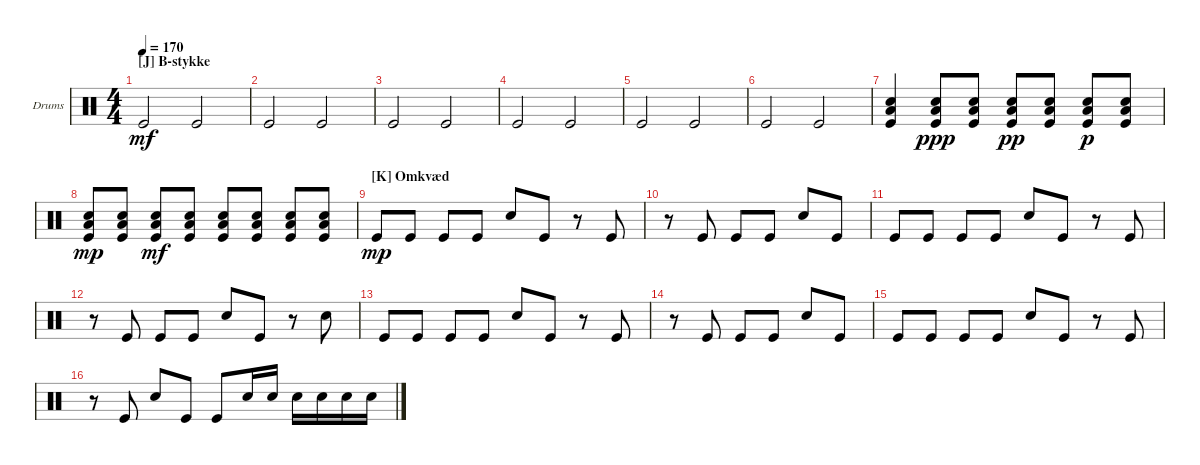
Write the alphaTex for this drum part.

\defaultSystemsLayout 4
\bracketExtendMode groupsimilarinstruments
\firstSystemTrackNameOrientation horizontal
\otherSystemsTrackNameOrientation horizontal
\track ("Ray" "Drums") {instrument percussion}
\staff {score}
\articulation defaults
\ts (4 4)
\section ("J" "B-stykke")
\tempo 170
\clef neutral
\ks c "Kick (hit)".2{dy mf} "Kick (hit)".2
|
"Kick (hit)".2 "Kick (hit)".2 |
"Kick (hit)".2 "Kick (hit)".2 |
"Kick (hit)".2 "Kick (hit)".2 |
"Kick (hit)".2 "Kick (hit)".2 |
"Kick (hit)".2 "Kick (hit)".2 |
("Snare (hit) 2" "Low Tom (hit)" "Kick (hit)").4 ("Snare (hit) 2" "Low Tom (hit)" "Kick (hit)").8{dy ppp} ("Snare (hit) 2" "Low Tom (hit)" "Kick (hit)").8 ("Snare (hit) 2" "Low Tom (hit)" "Kick (hit)").8{dy pp} ("Snare (hit) 2" "Low Tom (hit)" "Kick (hit)").8 ("Snare (hit) 2" "Low Tom (hit)" "Kick (hit)").8{dy p} ("Snare (hit) 2" "Low Tom (hit)" "Kick (hit)").8 |
("Kick (hit)" "Low Tom (hit)" "Snare (hit) 2").8{dy mp} ("Kick (hit)" "Low Tom (hit)" "Snare (hit) 2").8 ("Kick (hit)" "Low Tom (hit)" "Snare (hit) 2").8{dy mf} ("Kick (hit)" "Low Tom (hit)" "Snare (hit) 2").8 ("Kick (hit)" "Low Tom (hit)" "Snare (hit) 2").8 ("Kick (hit)" "Low Tom (hit)" "Snare (hit) 2").8 ("Kick (hit)" "Low Tom (hit)" "Snare (hit) 2").8 ("Kick (hit)" "Low Tom (hit)" "Snare (hit) 2").8 |
\section ("K" "Omkvæd")
"Kick (hit)".8{dy mp} "Kick (hit)".8 "Kick (hit)".8 "Kick (hit)".8 "Snare (hit) 2".8 "Kick (hit)".8 r.8 "Kick (hit)".8 |
r.8 "Kick (hit)".8 "Kick (hit)".8 "Kick (hit)".8 "Snare (hit) 2".8 "Kick (hit)".8 |
"Kick (hit)".8 "Kick (hit)".8 "Kick (hit)".8 "Kick (hit)".8 "Snare (hit) 2".8 "Kick (hit)".8 r.8 "Kick (hit)".8 |
r.8 "Kick (hit)".8 "Kick (hit)".8 "Kick (hit)".8 "Snare (hit) 2".8 "Kick (hit)".8 r.8 "Snare (hit) 2".8 |
"Kick (hit)".8 "Kick (hit)".8 "Kick (hit)".8 "Kick (hit)".8 "Snare (hit) 2".8 "Kick (hit)".8 r.8 "Kick (hit)".8 |
r.8 "Kick (hit)".8 "Kick (hit)".8 "Kick (hit)".8 "Snare (hit) 2".8 "Kick (hit)".8 |
"Kick (hit)".8 "Kick (hit)".8 "Kick (hit)".8 "Kick (hit)".8 "Snare (hit) 2".8 "Kick (hit)".8 r.8 "Kick (hit)".8 |
r.8 "Kick (hit)".8 "Snare (hit) 2".8 "Kick (hit)".8 "Kick (hit)".8 "Snare (hit) 2".16 "Snare (hit) 2".16 "Snare (hit) 2".16 "Snare (hit) 2".16 "Snare (hit) 2".16 "Snare (hit) 2".16
